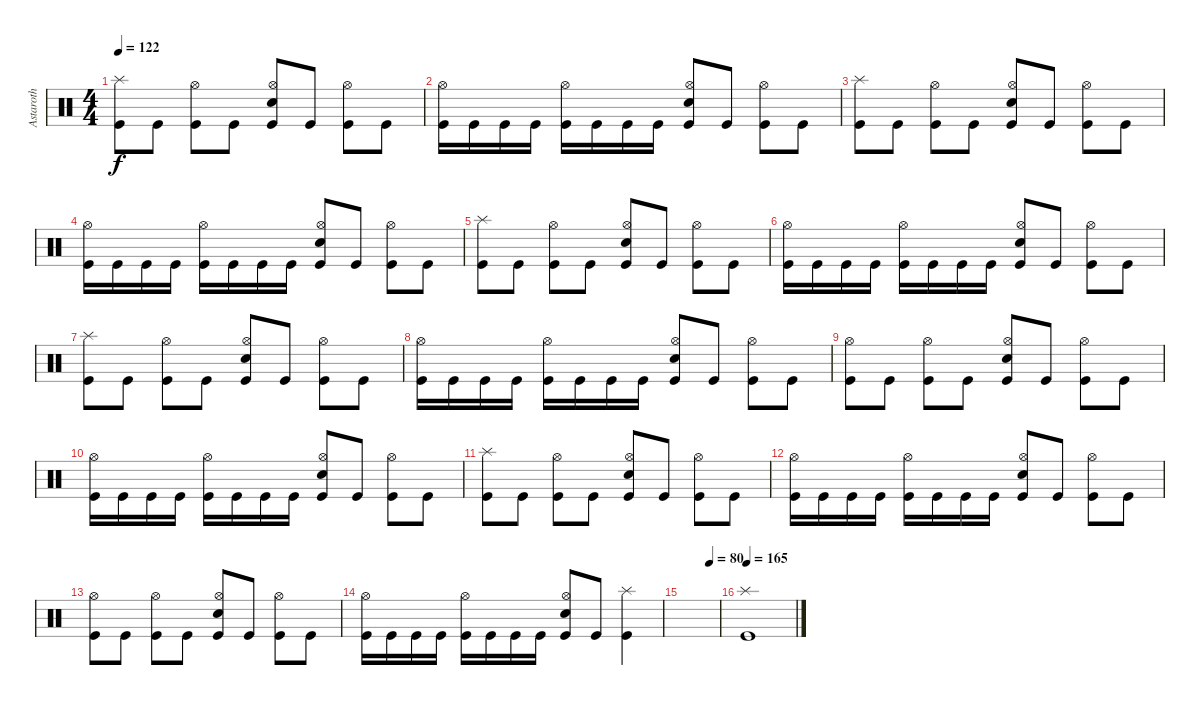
\track ("Astaroth" "Astaroth") {instrument percussion}
\staff {score}
\articulation defaults
\ts (4 4)
\tempo 122
\clef neutral
\ks c
("Kick (hit)" "Splash (hit)").8{dy f} "Kick (hit)".8 ("Kick (hit)" "Hi-Hat (open)").8 "Kick (hit)".8 ("Kick (hit)" "Hi-Hat (open)" "Electric Snare (hit)").8 "Kick (hit)".8 ("Kick (hit)" "Hi-Hat (open)").8 "Kick (hit)".8 |
("Kick (hit)" "Hi-Hat (open)").16 "Kick (hit)".16 "Kick (hit)".16 "Kick (hit)".16 ("Kick (hit)" "Hi-Hat (open)").16 "Kick (hit)".16 "Kick (hit)".16 "Kick (hit)".16 ("Kick (hit)" "Hi-Hat (open)" "Electric Snare (hit)").8 "Kick (hit)".8 ("Kick (hit)" "Hi-Hat (open)").8 "Kick (hit)".8 |
("Kick (hit)" "Splash (hit)").8 "Kick (hit)".8 ("Kick (hit)" "Hi-Hat (open)").8 "Kick (hit)".8 ("Kick (hit)" "Hi-Hat (open)" "Electric Snare (hit)").8 "Kick (hit)".8 ("Kick (hit)" "Hi-Hat (open)").8 "Kick (hit)".8 |
("Kick (hit)" "Hi-Hat (open)").16 "Kick (hit)".16 "Kick (hit)".16 "Kick (hit)".16 ("Kick (hit)" "Hi-Hat (open)").16 "Kick (hit)".16 "Kick (hit)".16 "Kick (hit)".16 ("Kick (hit)" "Hi-Hat (open)" "Electric Snare (hit)").8 "Kick (hit)".8 ("Kick (hit)" "Hi-Hat (open)").8 "Kick (hit)".8 |
("Kick (hit)" "Splash (hit)").8 "Kick (hit)".8 ("Kick (hit)" "Hi-Hat (open)").8 "Kick (hit)".8 ("Kick (hit)" "Hi-Hat (open)" "Electric Snare (hit)").8 "Kick (hit)".8 ("Kick (hit)" "Hi-Hat (open)").8 "Kick (hit)".8 |
("Kick (hit)" "Hi-Hat (open)").16 "Kick (hit)".16 "Kick (hit)".16 "Kick (hit)".16 ("Kick (hit)" "Hi-Hat (open)").16 "Kick (hit)".16 "Kick (hit)".16 "Kick (hit)".16 ("Kick (hit)" "Hi-Hat (open)" "Electric Snare (hit)").8 "Kick (hit)".8 ("Kick (hit)" "Hi-Hat (open)").8 "Kick (hit)".8 |
("Kick (hit)" "Splash (hit)").8 "Kick (hit)".8 ("Kick (hit)" "Hi-Hat (open)").8 "Kick (hit)".8 ("Kick (hit)" "Electric Snare (hit)" "Hi-Hat (open)").8 "Kick (hit)".8 ("Kick (hit)" "Hi-Hat (open)").8 "Kick (hit)".8 |
("Kick (hit)" "Hi-Hat (open)").16 "Kick (hit)".16 "Kick (hit)".16 "Kick (hit)".16 ("Kick (hit)" "Hi-Hat (open)").16 "Kick (hit)".16 "Kick (hit)".16 "Kick (hit)".16 ("Kick (hit)" "Electric Snare (hit)" "Hi-Hat (open)").8 "Kick (hit)".8 ("Kick (hit)" "Hi-Hat (open)").8 "Kick (hit)".8 |
("Kick (hit)" "Hi-Hat (open)").8 "Kick (hit)".8 ("Kick (hit)" "Hi-Hat (open)").8 "Kick (hit)".8 ("Kick (hit)" "Electric Snare (hit)" "Hi-Hat (open)").8 "Kick (hit)".8 ("Kick (hit)" "Hi-Hat (open)").8 "Kick (hit)".8 |
("Kick (hit)" "Hi-Hat (open)").16 "Kick (hit)".16 "Kick (hit)".16 "Kick (hit)".16 ("Kick (hit)" "Hi-Hat (open)").16 "Kick (hit)".16 "Kick (hit)".16 "Kick (hit)".16 ("Kick (hit)" "Electric Snare (hit)" "Hi-Hat (open)").8 "Kick (hit)".8 ("Kick (hit)" "Hi-Hat (open)").8 "Kick (hit)".8 |
("Kick (hit)" "Splash (hit)").8 "Kick (hit)".8 ("Kick (hit)" "Hi-Hat (open)").8 "Kick (hit)".8 ("Kick (hit)" "Electric Snare (hit)" "Hi-Hat (open)").8 "Kick (hit)".8 ("Kick (hit)" "Hi-Hat (open)").8 "Kick (hit)".8 |
("Kick (hit)" "Hi-Hat (open)").16 "Kick (hit)".16 "Kick (hit)".16 "Kick (hit)".16 ("Kick (hit)" "Hi-Hat (open)").16 "Kick (hit)".16 "Kick (hit)".16 "Kick (hit)".16 ("Kick (hit)" "Electric Snare (hit)" "Hi-Hat (open)").8 "Kick (hit)".8 ("Kick (hit)" "Hi-Hat (open)").8 "Kick (hit)".8 |
("Kick (hit)" "Hi-Hat (open)").8 "Kick (hit)".8 ("Kick (hit)" "Hi-Hat (open)").8 "Kick (hit)".8 ("Kick (hit)" "Electric Snare (hit)" "Hi-Hat (open)").8 "Kick (hit)".8 ("Kick (hit)" "Hi-Hat (open)").8 "Kick (hit)".8 |
("Kick (hit)" "Hi-Hat (open)").16 "Kick (hit)".16 "Kick (hit)".16 "Kick (hit)".16 ("Kick (hit)" "Hi-Hat (open)").16 "Kick (hit)".16 "Kick (hit)".16 "Kick (hit)".16 ("Kick (hit)" "Electric Snare (hit)" "Hi-Hat (open)").8 "Kick (hit)".8 ("Kick (hit)" "Splash (hit)").4 |
\tempo (80 0.75)
|
\tempo 165
("Kick (hit)" "Splash (hit)").1
